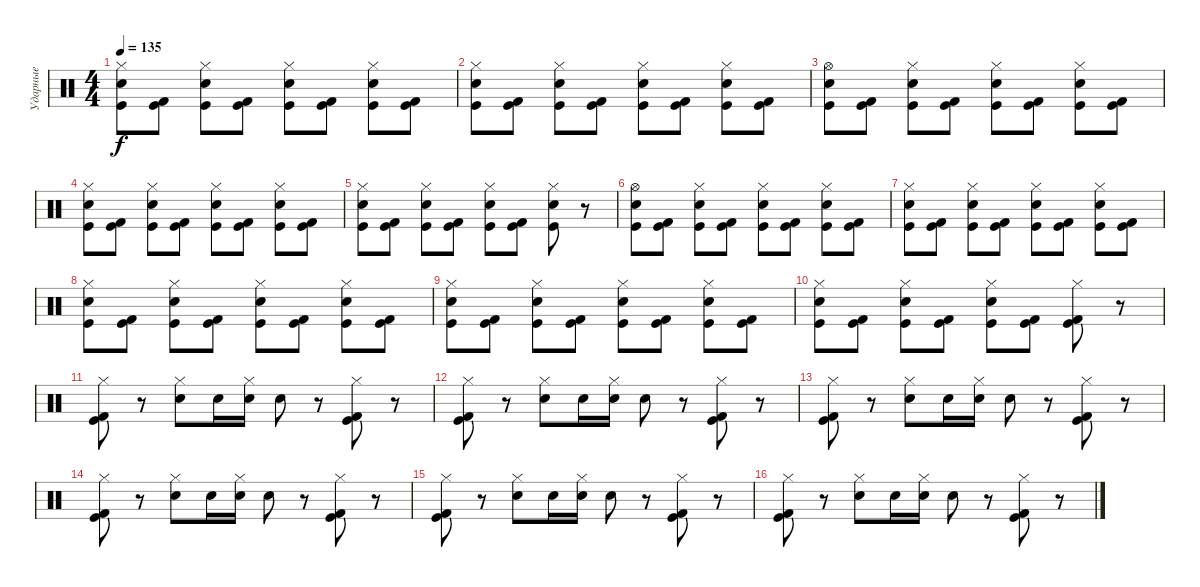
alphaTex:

\track ("Ударные" "Ударные") {instrument percussion}
\staff {score}
\articulation defaults
\ts (4 4)
\tempo 135
\clef neutral
\ks c
("Hi-Hat (closed)" "Electric Snare (hit)" "Kick (hit)").8{dy f} ("Kick (hit)" "Kick (hit) 2").8 ("Hi-Hat (closed)" "Electric Snare (hit)" "Kick (hit)").8 ("Kick (hit)" "Kick (hit) 2").8 ("Hi-Hat (closed)" "Electric Snare (hit)" "Kick (hit)").8 ("Kick (hit)" "Kick (hit) 2").8 ("Hi-Hat (closed)" "Electric Snare (hit)" "Kick (hit)").8 ("Kick (hit)" "Kick (hit) 2").8 |
("Hi-Hat (closed)" "Electric Snare (hit)" "Kick (hit)").8 ("Kick (hit)" "Kick (hit) 2").8 ("Hi-Hat (closed)" "Electric Snare (hit)" "Kick (hit)").8 ("Kick (hit)" "Kick (hit) 2").8 ("Hi-Hat (closed)" "Electric Snare (hit)" "Kick (hit)").8 ("Kick (hit)" "Kick (hit) 2").8 ("Hi-Hat (closed)" "Electric Snare (hit)" "Kick (hit)").8 ("Kick (hit)" "Kick (hit) 2").8 |
("Hi-Hat (open)" "Electric Snare (hit)" "Kick (hit)").8 ("Kick (hit)" "Kick (hit) 2").8 ("Hi-Hat (closed)" "Electric Snare (hit)" "Kick (hit)").8 ("Kick (hit)" "Kick (hit) 2").8 ("Hi-Hat (closed)" "Electric Snare (hit)" "Kick (hit)").8 ("Kick (hit)" "Kick (hit) 2").8 ("Hi-Hat (closed)" "Electric Snare (hit)" "Kick (hit)").8 ("Kick (hit)" "Kick (hit) 2").8 |
("Hi-Hat (closed)" "Electric Snare (hit)" "Kick (hit)").8 ("Kick (hit)" "Kick (hit) 2").8 ("Hi-Hat (closed)" "Electric Snare (hit)" "Kick (hit)").8 ("Kick (hit)" "Kick (hit) 2").8 ("Hi-Hat (closed)" "Electric Snare (hit)" "Kick (hit)").8 ("Kick (hit)" "Kick (hit) 2").8 ("Hi-Hat (closed)" "Electric Snare (hit)" "Kick (hit)").8 ("Kick (hit)" "Kick (hit) 2").8 |
("Hi-Hat (closed)" "Electric Snare (hit)" "Kick (hit)").8 ("Kick (hit)" "Kick (hit) 2").8 ("Hi-Hat (closed)" "Electric Snare (hit)" "Kick (hit)").8 ("Kick (hit)" "Kick (hit) 2").8 ("Hi-Hat (closed)" "Electric Snare (hit)" "Kick (hit)").8 ("Kick (hit)" "Kick (hit) 2").8 ("Hi-Hat (closed)" "Electric Snare (hit)" "Kick (hit)").8 r.8 |
("Hi-Hat (open)" "Electric Snare (hit)" "Kick (hit)").8 ("Kick (hit)" "Kick (hit) 2").8 ("Hi-Hat (closed)" "Electric Snare (hit)" "Kick (hit)").8 ("Kick (hit)" "Kick (hit) 2").8 ("Hi-Hat (closed)" "Electric Snare (hit)" "Kick (hit)").8 ("Kick (hit)" "Kick (hit) 2").8 ("Hi-Hat (closed)" "Electric Snare (hit)" "Kick (hit)").8 ("Kick (hit)" "Kick (hit) 2").8 |
("Hi-Hat (closed)" "Electric Snare (hit)" "Kick (hit)").8 ("Kick (hit)" "Kick (hit) 2").8 ("Hi-Hat (closed)" "Electric Snare (hit)" "Kick (hit)").8 ("Kick (hit)" "Kick (hit) 2").8 ("Hi-Hat (closed)" "Electric Snare (hit)" "Kick (hit)").8 ("Kick (hit)" "Kick (hit) 2").8 ("Hi-Hat (closed)" "Electric Snare (hit)" "Kick (hit)").8 ("Kick (hit)" "Kick (hit) 2").8 |
("Hi-Hat (closed)" "Electric Snare (hit)" "Kick (hit)").8 ("Kick (hit)" "Kick (hit) 2").8 ("Hi-Hat (closed)" "Electric Snare (hit)" "Kick (hit)").8 ("Kick (hit)" "Kick (hit) 2").8 ("Hi-Hat (closed)" "Electric Snare (hit)" "Kick (hit)").8 ("Kick (hit)" "Kick (hit) 2").8 ("Hi-Hat (closed)" "Electric Snare (hit)" "Kick (hit)").8 ("Kick (hit)" "Kick (hit) 2").8 |
("Hi-Hat (closed)" "Electric Snare (hit)" "Kick (hit)").8 ("Kick (hit)" "Kick (hit) 2").8 ("Hi-Hat (closed)" "Electric Snare (hit)" "Kick (hit)").8 ("Kick (hit)" "Kick (hit) 2").8 ("Hi-Hat (closed)" "Electric Snare (hit)" "Kick (hit)").8 ("Kick (hit)" "Kick (hit) 2").8 ("Hi-Hat (closed)" "Electric Snare (hit)" "Kick (hit)").8 ("Kick (hit)" "Kick (hit) 2").8 |
("Hi-Hat (closed)" "Electric Snare (hit)" "Kick (hit)").8 ("Kick (hit)" "Kick (hit) 2").8 ("Hi-Hat (closed)" "Electric Snare (hit)" "Kick (hit)").8 ("Kick (hit)" "Kick (hit) 2").8 ("Hi-Hat (closed)" "Electric Snare (hit)" "Kick (hit)").8 ("Kick (hit)" "Kick (hit) 2").8 ("Hi-Hat (closed)" "Kick (hit)" "Kick (hit) 2").8 r.8 |
("Hi-Hat (closed)" "Kick (hit)" "Kick (hit) 2").8 r.8 ("Hi-Hat (closed)" "Electric Snare (hit)").8 "Electric Snare (hit)".16 ("Hi-Hat (closed)" "Electric Snare (hit)").16 "Electric Snare (hit)".8 r.8 ("Hi-Hat (closed)" "Kick (hit)" "Kick (hit) 2").8 r.8 |
("Hi-Hat (closed)" "Kick (hit)" "Kick (hit) 2").8 r.8 ("Hi-Hat (closed)" "Electric Snare (hit)").8 "Electric Snare (hit)".16 ("Hi-Hat (closed)" "Electric Snare (hit)").16 "Electric Snare (hit)".8 r.8 ("Hi-Hat (closed)" "Kick (hit)" "Kick (hit) 2").8 r.8 |
("Hi-Hat (closed)" "Kick (hit)" "Kick (hit) 2").8 r.8 ("Hi-Hat (closed)" "Electric Snare (hit)").8 "Electric Snare (hit)".16 ("Hi-Hat (closed)" "Electric Snare (hit)").16 "Electric Snare (hit)".8 r.8 ("Hi-Hat (closed)" "Kick (hit)" "Kick (hit) 2").8 r.8 |
("Hi-Hat (closed)" "Kick (hit)" "Kick (hit) 2").8 r.8 ("Hi-Hat (closed)" "Electric Snare (hit)").8 "Electric Snare (hit)".16 ("Hi-Hat (closed)" "Electric Snare (hit)").16 "Electric Snare (hit)".8 r.8 ("Hi-Hat (closed)" "Kick (hit)" "Kick (hit) 2").8 r.8 |
("Hi-Hat (closed)" "Kick (hit)" "Kick (hit) 2").8 r.8 ("Hi-Hat (closed)" "Electric Snare (hit)").8 "Electric Snare (hit)".16 ("Hi-Hat (closed)" "Electric Snare (hit)").16 "Electric Snare (hit)".8 r.8 ("Hi-Hat (closed)" "Kick (hit)" "Kick (hit) 2").8 r.8 |
("Hi-Hat (closed)" "Kick (hit)" "Kick (hit) 2").8 r.8 ("Hi-Hat (closed)" "Electric Snare (hit)").8 "Electric Snare (hit)".16 ("Hi-Hat (closed)" "Electric Snare (hit)").16 "Electric Snare (hit)".8 r.8 ("Hi-Hat (closed)" "Kick (hit)" "Kick (hit) 2").8 r.8
